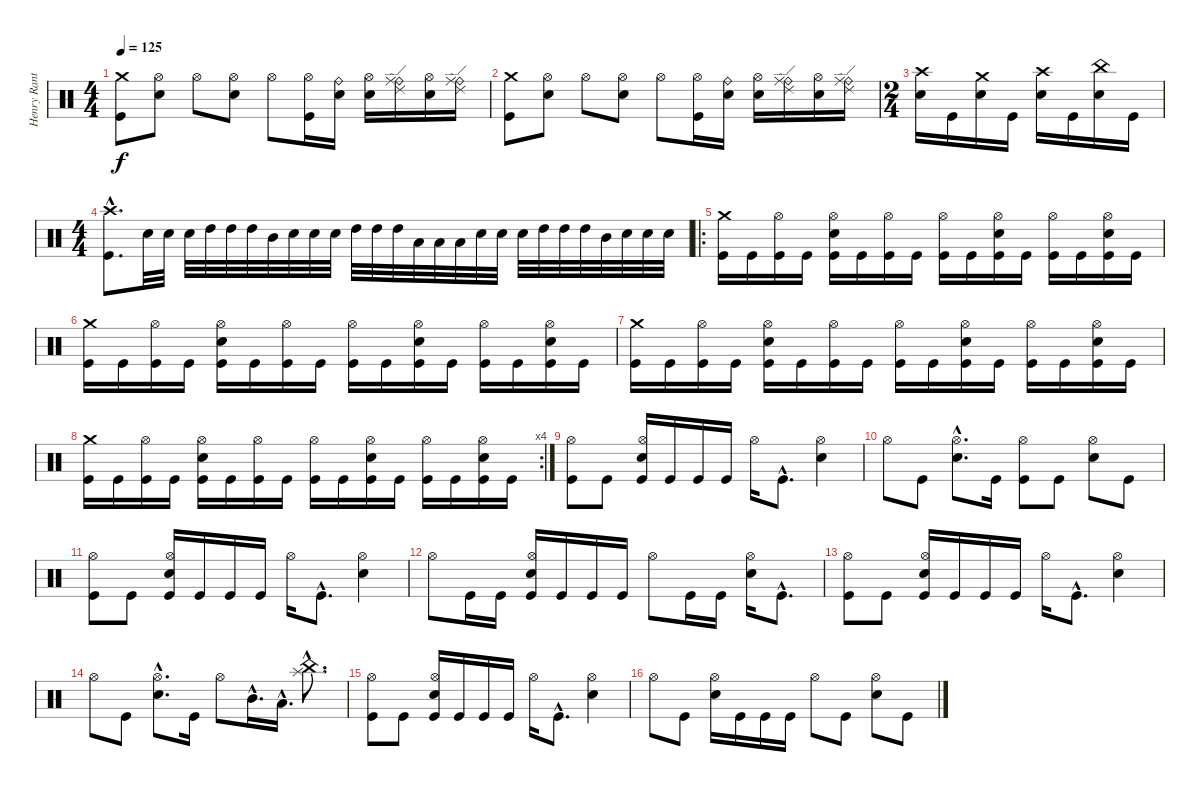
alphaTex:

\track ("Henry Ranta" "Henry Rant") {instrument percussion}
\staff {score}
\articulation defaults
\ts (4 4)
\tempo 125
\clef neutral
\ks c
("Crash medium (hit)" "Kick (hit)").8{dy f} ("Hi-Hat (open)" "Electric Snare (hit)").8 "Hi-Hat (open)".8 ("Hi-Hat (open)" "Electric Snare (hit)").8 "Hi-Hat (open)".8 ("Hi-Hat (open)" "Kick (hit)").16 ("Ride (bell)" "Electric Snare (hit)").16 ("Hi-Hat (open)" "Electric Snare (hit)").16 ("Ride (edge) 2" "Ride (bell)" "Ride (middle)").16 ("Hi-Hat (open)" "Electric Snare (hit)").16 ("Ride (edge) 2" "Ride (bell)" "Ride (middle)").16 |
("Crash medium (hit)" "Kick (hit)").8 ("Hi-Hat (open)" "Electric Snare (hit)").8 "Hi-Hat (open)".8 ("Hi-Hat (open)" "Electric Snare (hit)").8 "Hi-Hat (open)".8 ("Hi-Hat (open)" "Kick (hit)").16 ("Ride (bell)" "Electric Snare (hit)").16 ("Hi-Hat (open)" "Electric Snare (hit)").16 ("Ride (edge) 2" "Ride (bell)" "Ride (middle)").16 ("Hi-Hat (open)" "Electric Snare (hit)").16 ("Ride (edge) 2" "Ride (bell)" "Ride (middle)").16 |
\ts (2 4)
("Crash high (hit)" "Electric Snare (hit)").16 "Kick (hit)".16 ("Crash medium (hit)" "Electric Snare (hit)").16 "Kick (hit)".16 ("Crash high (hit)" "Electric Snare (hit)").16 "Kick (hit)".16 ("China (hit)" "Electric Snare (hit)").16 "Kick (hit)".16 |
\ts (4 4)
("Crash high (hit)"{hac} "Kick (hit)"{hac}).8{d} "Electric Snare (hit)".32 "Electric Snare (hit)".32 "Electric Snare (hit)".32 "High Tom (hit)".32 "High Tom (hit)".32 "High Tom (hit)".32 "Mid Tom (hit)".32 "Electric Snare (hit)".32 "Electric Snare (hit)".32 "Electric Snare (hit)".32 "High Tom (hit)".32 "High Tom (hit)".32 "High Tom (hit)".32 "Low Tom (hit)".32 "Low Tom (hit)".32 "Low Tom (hit)".32 "Electric Snare (hit)".32 "Electric Snare (hit)".32 "Electric Snare (hit)".32 "High Tom (hit)".32 "High Tom (hit)".32 "High Tom (hit)".32 "Mid Tom (hit)".32 "Electric Snare (hit)".32 "Electric Snare (hit)".32 "Electric Snare (hit)".32 |
\ro
("Crash medium (hit)" "Kick (hit)").16 "Kick (hit)".16 ("Hi-Hat (open)" "Kick (hit)").16 "Kick (hit)".16 ("Hi-Hat (open)" "Electric Snare (hit)" "Kick (hit)").16 "Kick (hit)".16 ("Hi-Hat (open)" "Kick (hit)").16 "Kick (hit)".16 ("Hi-Hat (open)" "Kick (hit)").16 "Kick (hit)".16 ("Hi-Hat (open)" "Electric Snare (hit)" "Kick (hit)").16 "Kick (hit)".16 ("Hi-Hat (open)" "Kick (hit)").16 "Kick (hit)".16 ("Hi-Hat (open)" "Electric Snare (hit)" "Kick (hit)").16 "Kick (hit)".16 |
("Crash medium (hit)" "Kick (hit)").16 "Kick (hit)".16 ("Hi-Hat (open)" "Kick (hit)").16 "Kick (hit)".16 ("Hi-Hat (open)" "Electric Snare (hit)" "Kick (hit)").16 "Kick (hit)".16 ("Hi-Hat (open)" "Kick (hit)").16 "Kick (hit)".16 ("Hi-Hat (open)" "Kick (hit)").16 "Kick (hit)".16 ("Hi-Hat (open)" "Electric Snare (hit)" "Kick (hit)").16 "Kick (hit)".16 ("Hi-Hat (open)" "Kick (hit)").16 "Kick (hit)".16 ("Hi-Hat (open)" "Electric Snare (hit)" "Kick (hit)").16 "Kick (hit)".16 |
("Crash medium (hit)" "Kick (hit)").16 "Kick (hit)".16 ("Hi-Hat (open)" "Kick (hit)").16 "Kick (hit)".16 ("Hi-Hat (open)" "Electric Snare (hit)" "Kick (hit)").16 "Kick (hit)".16 ("Hi-Hat (open)" "Kick (hit)").16 "Kick (hit)".16 ("Hi-Hat (open)" "Kick (hit)").16 "Kick (hit)".16 ("Hi-Hat (open)" "Electric Snare (hit)" "Kick (hit)").16 "Kick (hit)".16 ("Hi-Hat (open)" "Kick (hit)").16 "Kick (hit)".16 ("Hi-Hat (open)" "Electric Snare (hit)" "Kick (hit)").16 "Kick (hit)".16 |
\rc 4
("Crash medium (hit)" "Kick (hit)").16 "Kick (hit)".16 ("Hi-Hat (open)" "Kick (hit)").16 "Kick (hit)".16 ("Hi-Hat (open)" "Electric Snare (hit)" "Kick (hit)").16 "Kick (hit)".16 ("Hi-Hat (open)" "Kick (hit)").16 "Kick (hit)".16 ("Hi-Hat (open)" "Kick (hit)").16 "Kick (hit)".16 ("Hi-Hat (open)" "Electric Snare (hit)" "Kick (hit)").16 "Kick (hit)".16 ("Hi-Hat (open)" "Kick (hit)").16 "Kick (hit)".16 ("Hi-Hat (open)" "Electric Snare (hit)" "Kick (hit)").16 "Kick (hit)".16 |
("Hi-Hat (open)" "Kick (hit)").8 "Kick (hit)".8 ("Hi-Hat (open)" "Electric Snare (hit)" "Kick (hit)").16 "Kick (hit)".16 "Kick (hit)".16 "Kick (hit)".16 "Hi-Hat (open)".16 "Kick (hit)"{hac}.8{d} ("Hi-Hat (open)" "Electric Snare (hit)").4 |
"Hi-Hat (open)".8 "Kick (hit)".8 ("Hi-Hat (open)"{hac} "Electric Snare (hit)"{hac}).8{d} "Kick (hit)".16 ("Hi-Hat (open)" "Kick (hit)").8 "Kick (hit)".8 ("Hi-Hat (open)" "Electric Snare (hit)").8 "Kick (hit)".8 |
("Hi-Hat (open)" "Kick (hit)").8 "Kick (hit)".8 ("Hi-Hat (open)" "Electric Snare (hit)" "Kick (hit)").16 "Kick (hit)".16 "Kick (hit)".16 "Kick (hit)".16 "Hi-Hat (open)".16 "Kick (hit)"{hac}.8{d} ("Hi-Hat (open)" "Electric Snare (hit)").4 |
"Hi-Hat (open)".8 "Kick (hit)".16 "Kick (hit)".16 ("Hi-Hat (open)" "Electric Snare (hit)" "Kick (hit)").16 "Kick (hit)".16 "Kick (hit)".16 "Kick (hit)".16 "Hi-Hat (open)".8 "Kick (hit)".16 "Kick (hit)".16 ("Hi-Hat (open)" "Electric Snare (hit)").16 "Kick (hit)"{hac}.8{d} |
("Hi-Hat (open)" "Kick (hit)").8 "Kick (hit)".8 ("Hi-Hat (open)" "Electric Snare (hit)" "Kick (hit)").16 "Kick (hit)".16 "Kick (hit)".16 "Kick (hit)".16 "Hi-Hat (open)".16 "Kick (hit)"{hac}.8{d} ("Hi-Hat (open)" "Electric Snare (hit)").4 |
"Hi-Hat (open)".8 "Kick (hit)".8 ("Hi-Hat (open)"{hac} "Electric Snare (hit)"{hac}).8{d} "Kick (hit)".16 "Hi-Hat (open)".8 "Mid Tom (hit)"{hac}.16{d} "Low Tom (hit)"{hac}.16{d} ("Splash (hit)"{hac} "China (hit)"{hac}).8{d} |
("Hi-Hat (open)" "Kick (hit)").8 "Kick (hit)".8 ("Hi-Hat (open)" "Electric Snare (hit)" "Kick (hit)").16 "Kick (hit)".16 "Kick (hit)".16 "Kick (hit)".16 "Hi-Hat (open)".16 "Kick (hit)"{hac}.8{d} ("Hi-Hat (open)" "Electric Snare (hit)").4 |
"Hi-Hat (open)".8 "Kick (hit)".8 ("Hi-Hat (open)" "Electric Snare (hit)").16 "Kick (hit)".16 "Kick (hit)".16 "Kick (hit)".16 "Hi-Hat (open)".8 "Kick (hit)".8 ("Hi-Hat (open)" "Electric Snare (hit)").8 "Kick (hit)".8
